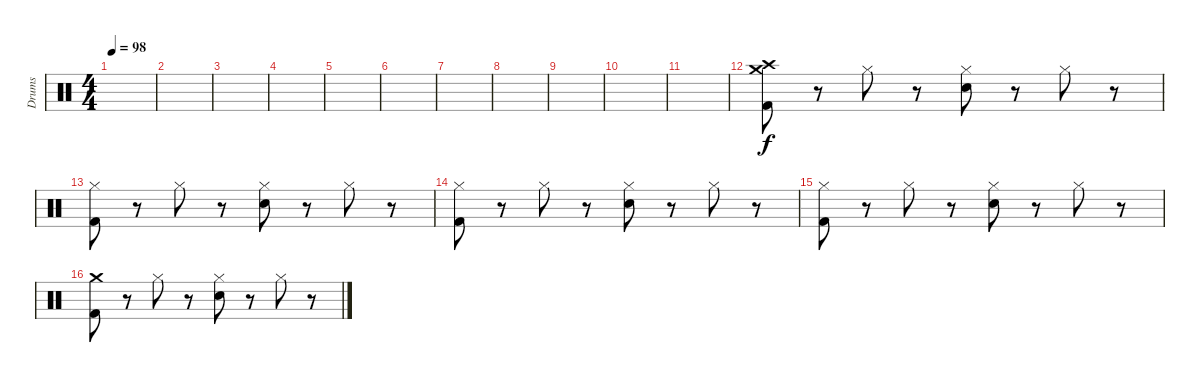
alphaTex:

\track ("Drums" "Drums") {instrument percussion}
\staff {score}
\articulation defaults
\ts (4 4)
\tempo 98
\clef neutral
\ks c
|
|
|
\section ("" "")
|
|
|
|
|
|
|
|
("Crash medium (hit)" "Crash high (hit)" "Kick (hit) 2").8 r.8 "Hi-Hat (closed)".8 r.8 ("Hi-Hat (closed)" "Electric Snare (hit)").8 r.8 "Hi-Hat (closed)".8 r.8 |
("Hi-Hat (closed)" "Kick (hit) 2").8 r.8 "Hi-Hat (closed)".8 r.8 ("Hi-Hat (closed)" "Electric Snare (hit)").8 r.8 "Hi-Hat (closed)".8 r.8 |
("Hi-Hat (closed)" "Kick (hit) 2").8 r.8 "Hi-Hat (closed)".8 r.8 ("Hi-Hat (closed)" "Electric Snare (hit)").8 r.8 "Hi-Hat (closed)".8 r.8 |
("Hi-Hat (closed)" "Kick (hit) 2").8 r.8 "Hi-Hat (closed)".8 r.8 ("Hi-Hat (closed)" "Electric Snare (hit)").8 r.8 "Hi-Hat (closed)".8 r.8 |
("Crash medium (hit)" "Kick (hit) 2").8 r.8 "Hi-Hat (closed)".8 r.8 ("Hi-Hat (closed)" "Electric Snare (hit)").8 r.8 "Hi-Hat (closed)".8 r.8
